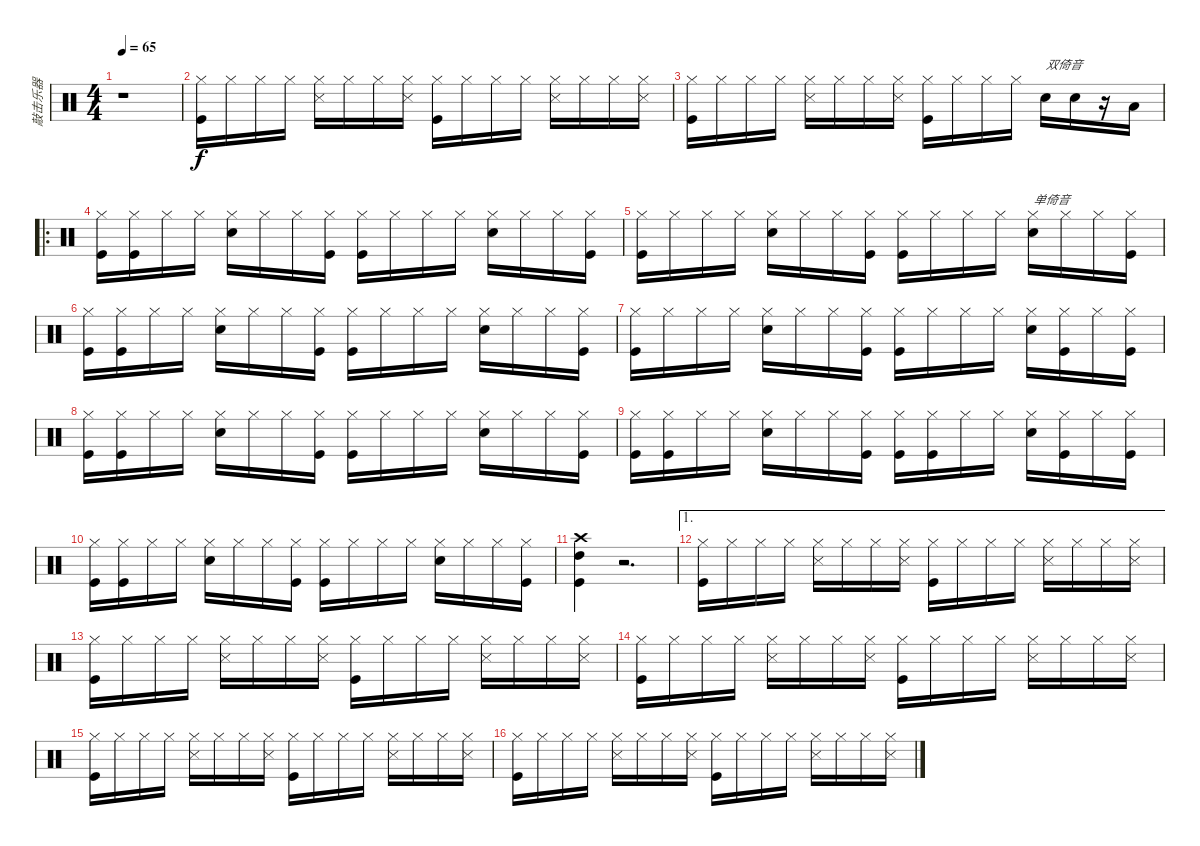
\track ("敲击乐器" "敲击乐器") {instrument percussion}
\staff {score}
\articulation defaults
\ts (4 4)
\tempo 65
\clef neutral
\ks c
r.1{dy f} |
("Kick (hit)" "Hi-Hat (closed)").16 "Hi-Hat (closed)".16 "Hi-Hat (closed)".16 "Hi-Hat (closed)".16 ("Metronome (hit)" "Hi-Hat (closed)").16 "Hi-Hat (closed)".16 "Hi-Hat (closed)".16 ("Snare (side stick) 3" "Hi-Hat (closed)").16 ("Hi-Hat (closed)" "Kick (hit)").16 "Hi-Hat (closed)".16 "Hi-Hat (closed)".16 "Hi-Hat (closed)".16 ("Hi-Hat (closed)" "Metronome (hit)").16 "Hi-Hat (closed)".16 "Hi-Hat (closed)".16 ("Hi-Hat (closed)" "Snare (side stick) 3").16 |
("Kick (hit)" "Hi-Hat (closed)").16 "Hi-Hat (closed)".16 "Hi-Hat (closed)".16 "Hi-Hat (closed)".16 ("Metronome (hit)" "Hi-Hat (closed)").16 "Hi-Hat (closed)".16 "Hi-Hat (closed)".16 ("Snare (side stick) 3" "Hi-Hat (closed)").16 ("Hi-Hat (closed)" "Kick (hit)").16 "Hi-Hat (closed)".16 "Hi-Hat (closed)".16 "Hi-Hat (closed)".16 "Electric Snare (hit)".16{txt "双倚音"} "Electric Snare (hit)".16 r.16 "Low Floor Tom (hit)".16 |
\ro
("Kick (hit)" "Hi-Hat (closed)").16 ("Kick (hit)" "Hi-Hat (closed)").16 "Hi-Hat (closed)".16 "Hi-Hat (closed)".16 ("Electric Snare (hit)" "Hi-Hat (closed)").16 "Hi-Hat (closed)".16 "Hi-Hat (closed)".16 ("Kick (hit)" "Hi-Hat (closed)").16 ("Kick (hit)" "Hi-Hat (closed)").16 "Hi-Hat (closed)".16 "Hi-Hat (closed)".16 "Hi-Hat (closed)".16 ("Electric Snare (hit)" "Hi-Hat (closed)").16 "Hi-Hat (closed)".16 "Hi-Hat (closed)".16 ("Kick (hit)" "Hi-Hat (closed)").16 |
("Kick (hit)" "Hi-Hat (closed)").16 "Hi-Hat (closed)".16 "Hi-Hat (closed)".16 "Hi-Hat (closed)".16 ("Electric Snare (hit)" "Hi-Hat (closed)").16 "Hi-Hat (closed)".16 "Hi-Hat (closed)".16 ("Kick (hit)" "Hi-Hat (closed)").16 ("Kick (hit)" "Hi-Hat (closed)").16 "Hi-Hat (closed)".16 "Hi-Hat (closed)".16 "Hi-Hat (closed)".16 ("Electric Snare (hit)" "Hi-Hat (closed)").16{txt "单倚音"} "Hi-Hat (closed)".16 "Hi-Hat (closed)".16 ("Kick (hit)" "Hi-Hat (closed)").16 |
("Kick (hit)" "Hi-Hat (closed)").16 ("Kick (hit)" "Hi-Hat (closed)").16 "Hi-Hat (closed)".16 "Hi-Hat (closed)".16 ("Electric Snare (hit)" "Hi-Hat (closed)").16 "Hi-Hat (closed)".16 "Hi-Hat (closed)".16 ("Kick (hit)" "Hi-Hat (closed)").16 ("Kick (hit)" "Hi-Hat (closed)").16 "Hi-Hat (closed)".16 "Hi-Hat (closed)".16 "Hi-Hat (closed)".16 ("Electric Snare (hit)" "Hi-Hat (closed)").16 "Hi-Hat (closed)".16 "Hi-Hat (closed)".16 ("Kick (hit)" "Hi-Hat (closed)").16 |
("Kick (hit)" "Hi-Hat (closed)").16 "Hi-Hat (closed)".16 "Hi-Hat (closed)".16 "Hi-Hat (closed)".16 ("Electric Snare (hit)" "Hi-Hat (closed)").16 "Hi-Hat (closed)".16 "Hi-Hat (closed)".16 ("Kick (hit)" "Hi-Hat (closed)").16 ("Kick (hit)" "Hi-Hat (closed)").16 "Hi-Hat (closed)".16 "Hi-Hat (closed)".16 "Hi-Hat (closed)".16 ("Electric Snare (hit)" "Hi-Hat (closed)").16 ("Kick (hit)" "Hi-Hat (closed)").16 "Hi-Hat (closed)".16 ("Kick (hit)" "Hi-Hat (closed)").16 |
("Kick (hit)" "Hi-Hat (closed)").16 ("Kick (hit)" "Hi-Hat (closed)").16 "Hi-Hat (closed)".16 "Hi-Hat (closed)".16 ("Electric Snare (hit)" "Hi-Hat (closed)").16 "Hi-Hat (closed)".16 "Hi-Hat (closed)".16 ("Kick (hit)" "Hi-Hat (closed)").16 ("Kick (hit)" "Hi-Hat (closed)").16 "Hi-Hat (closed)".16 "Hi-Hat (closed)".16 "Hi-Hat (closed)".16 ("Electric Snare (hit)" "Hi-Hat (closed)").16 "Hi-Hat (closed)".16 "Hi-Hat (closed)".16 ("Kick (hit)" "Hi-Hat (closed)").16 |
("Kick (hit)" "Hi-Hat (closed)").16 ("Kick (hit)" "Hi-Hat (closed)").16 "Hi-Hat (closed)".16 "Hi-Hat (closed)".16 ("Electric Snare (hit)" "Hi-Hat (closed)").16 "Hi-Hat (closed)".16 "Hi-Hat (closed)".16 ("Kick (hit)" "Hi-Hat (closed)").16 ("Kick (hit)" "Hi-Hat (closed)").16 ("Kick (hit)" "Hi-Hat (closed)").16 "Hi-Hat (closed)".16 "Hi-Hat (closed)".16 ("Electric Snare (hit)" "Hi-Hat (closed)").16 ("Kick (hit)" "Hi-Hat (closed)").16 "Hi-Hat (closed)".16 ("Kick (hit)" "Hi-Hat (closed)").16 |
("Kick (hit)" "Hi-Hat (closed)").16 ("Kick (hit)" "Hi-Hat (closed)").16 "Hi-Hat (closed)".16 "Hi-Hat (closed)".16 ("Electric Snare (hit)" "Hi-Hat (closed)").16 "Hi-Hat (closed)".16 "Hi-Hat (closed)".16 ("Kick (hit)" "Hi-Hat (closed)").16 ("Kick (hit)" "Hi-Hat (closed)").16 "Hi-Hat (closed)".16 "Hi-Hat (closed)".16 "Hi-Hat (closed)".16 ("Electric Snare (hit)" "Hi-Hat (closed)").16 "Hi-Hat (closed)".16 "Hi-Hat (closed)".16 ("Kick (hit)" "Hi-Hat (closed)").16 |
("High Tom (hit)" "Crash high (hit)" "Kick (hit)").4 r.2{d} |
\ae 1
("Kick (hit)" "Hi-Hat (closed)").16 "Hi-Hat (closed)".16 "Hi-Hat (closed)".16 "Hi-Hat (closed)".16 ("Metronome (hit)" "Hi-Hat (closed)").16 "Hi-Hat (closed)".16 "Hi-Hat (closed)".16 ("Snare (side stick) 3" "Hi-Hat (closed)").16 ("Hi-Hat (closed)" "Kick (hit)").16 "Hi-Hat (closed)".16 "Hi-Hat (closed)".16 "Hi-Hat (closed)".16 ("Hi-Hat (closed)" "Metronome (hit)").16 "Hi-Hat (closed)".16 "Hi-Hat (closed)".16 ("Hi-Hat (closed)" "Snare (side stick) 3").16 |
("Kick (hit)" "Hi-Hat (closed)").16 "Hi-Hat (closed)".16 "Hi-Hat (closed)".16 "Hi-Hat (closed)".16 ("Metronome (hit)" "Hi-Hat (closed)").16 "Hi-Hat (closed)".16 "Hi-Hat (closed)".16 ("Snare (side stick) 3" "Hi-Hat (closed)").16 ("Hi-Hat (closed)" "Kick (hit)").16 "Hi-Hat (closed)".16 "Hi-Hat (closed)".16 "Hi-Hat (closed)".16 ("Hi-Hat (closed)" "Metronome (hit)").16 "Hi-Hat (closed)".16 "Hi-Hat (closed)".16 ("Hi-Hat (closed)" "Snare (side stick) 3").16 |
("Kick (hit)" "Hi-Hat (closed)").16 "Hi-Hat (closed)".16 "Hi-Hat (closed)".16 "Hi-Hat (closed)".16 ("Metronome (hit)" "Hi-Hat (closed)").16 "Hi-Hat (closed)".16 "Hi-Hat (closed)".16 ("Snare (side stick) 3" "Hi-Hat (closed)").16 ("Hi-Hat (closed)" "Kick (hit)").16 "Hi-Hat (closed)".16 "Hi-Hat (closed)".16 "Hi-Hat (closed)".16 ("Hi-Hat (closed)" "Metronome (hit)").16 "Hi-Hat (closed)".16 "Hi-Hat (closed)".16 ("Hi-Hat (closed)" "Snare (side stick) 3").16 |
("Kick (hit)" "Hi-Hat (closed)").16 "Hi-Hat (closed)".16 "Hi-Hat (closed)".16 "Hi-Hat (closed)".16 ("Metronome (hit)" "Hi-Hat (closed)").16 "Hi-Hat (closed)".16 "Hi-Hat (closed)".16 ("Snare (side stick) 3" "Hi-Hat (closed)").16 ("Hi-Hat (closed)" "Kick (hit)").16 "Hi-Hat (closed)".16 "Hi-Hat (closed)".16 "Hi-Hat (closed)".16 ("Hi-Hat (closed)" "Metronome (hit)").16 "Hi-Hat (closed)".16 "Hi-Hat (closed)".16 ("Hi-Hat (closed)" "Snare (side stick) 3").16 |
("Kick (hit)" "Hi-Hat (closed)").16 "Hi-Hat (closed)".16 "Hi-Hat (closed)".16 "Hi-Hat (closed)".16 ("Metronome (hit)" "Hi-Hat (closed)").16 "Hi-Hat (closed)".16 "Hi-Hat (closed)".16 ("Snare (side stick) 3" "Hi-Hat (closed)").16 ("Hi-Hat (closed)" "Kick (hit)").16 "Hi-Hat (closed)".16 "Hi-Hat (closed)".16 "Hi-Hat (closed)".16 ("Hi-Hat (closed)" "Metronome (hit)").16 "Hi-Hat (closed)".16 "Hi-Hat (closed)".16 ("Hi-Hat (closed)" "Snare (side stick) 3").16
